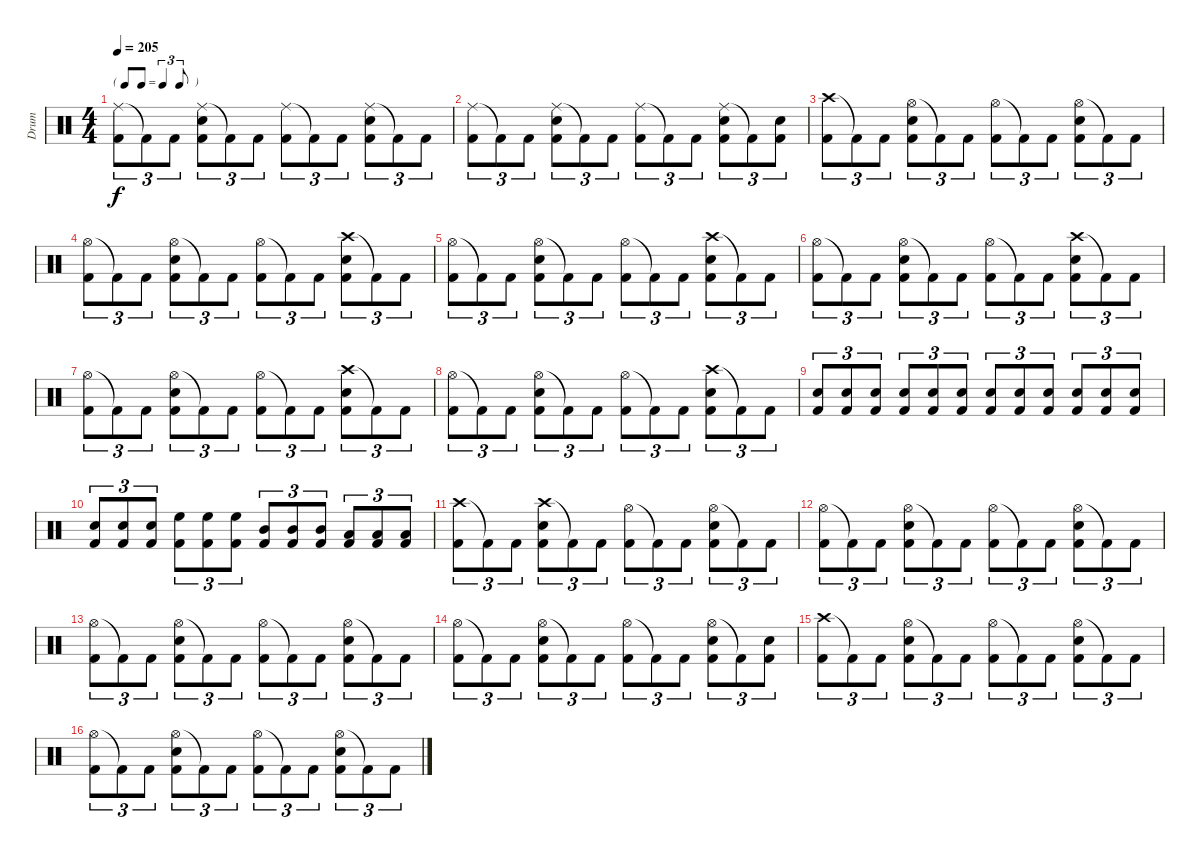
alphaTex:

\track ("Drum" "Drum") {instrument percussion}
\staff {score}
\articulation defaults
\ts (4 4)
\tf triplet8th
\tempo 205
\clef neutral
\ks c
("Ride (middle)" "Kick (hit) 2").8{tu (3 2) dy f} "Kick (hit) 2"{t}.8{tu (3 2)} "Kick (hit) 2".8{tu (3 2)} ("Ride (middle)" "Snare (hit) 2" "Kick (hit) 2").8{tu (3 2)} "Kick (hit) 2"{t}.8{tu (3 2)} "Kick (hit) 2".8{tu (3 2)} ("Ride (middle)" "Kick (hit) 2").8{tu (3 2)} "Kick (hit) 2"{t}.8{tu (3 2)} "Kick (hit) 2".8{tu (3 2)} ("Ride (middle)" "Snare (hit) 2" "Kick (hit) 2").8{tu (3 2)} "Kick (hit) 2"{t}.8{tu (3 2)} "Kick (hit) 2".8{tu (3 2)} |
("Ride (middle)" "Kick (hit) 2").8{tu (3 2)} "Kick (hit) 2"{t}.8{tu (3 2)} "Kick (hit) 2".8{tu (3 2)} ("Ride (middle)" "Snare (hit) 2" "Kick (hit) 2").8{tu (3 2)} "Kick (hit) 2"{t}.8{tu (3 2)} "Kick (hit) 2".8{tu (3 2)} ("Ride (middle)" "Kick (hit) 2").8{tu (3 2)} "Kick (hit) 2"{t}.8{tu (3 2)} "Kick (hit) 2".8{tu (3 2)} ("Ride (middle)" "Snare (hit) 2" "Kick (hit) 2").8{tu (3 2)} "Kick (hit) 2"{t}.8{tu (3 2)} ("Snare (hit) 2" "Kick (hit) 2").8{tu (3 2)} |
("Crash high (hit)" "Kick (hit) 2").8{tu (3 2)} "Kick (hit) 2"{t}.8{tu (3 2)} "Kick (hit) 2".8{tu (3 2)} ("Hi-Hat (open)" "Snare (hit) 2" "Kick (hit) 2").8{tu (3 2)} "Kick (hit) 2"{t}.8{tu (3 2)} "Kick (hit) 2".8{tu (3 2)} ("Hi-Hat (open)" "Kick (hit) 2").8{tu (3 2)} "Kick (hit) 2"{t}.8{tu (3 2)} "Kick (hit) 2".8{tu (3 2)} ("Hi-Hat (open)" "Snare (hit) 2" "Kick (hit) 2").8{tu (3 2)} "Kick (hit) 2"{t}.8{tu (3 2)} "Kick (hit) 2".8{tu (3 2)} |
("Hi-Hat (open)" "Kick (hit) 2").8{tu (3 2)} "Kick (hit) 2"{t}.8{tu (3 2)} "Kick (hit) 2".8{tu (3 2)} ("Hi-Hat (open)" "Snare (hit) 2" "Kick (hit) 2").8{tu (3 2)} "Kick (hit) 2"{t}.8{tu (3 2)} "Kick (hit) 2".8{tu (3 2)} ("Hi-Hat (open)" "Kick (hit) 2").8{tu (3 2)} "Kick (hit) 2"{t}.8{tu (3 2)} "Kick (hit) 2".8{tu (3 2)} ("Crash high (hit)" "Snare (hit) 2" "Kick (hit) 2").8{tu (3 2)} "Kick (hit) 2"{t}.8{tu (3 2)} "Kick (hit) 2".8{tu (3 2)} |
("Hi-Hat (open)" "Kick (hit) 2").8{tu (3 2)} "Kick (hit) 2"{t}.8{tu (3 2)} "Kick (hit) 2".8{tu (3 2)} ("Hi-Hat (open)" "Snare (hit) 2" "Kick (hit) 2").8{tu (3 2)} "Kick (hit) 2"{t}.8{tu (3 2)} "Kick (hit) 2".8{tu (3 2)} ("Hi-Hat (open)" "Kick (hit) 2").8{tu (3 2)} "Kick (hit) 2"{t}.8{tu (3 2)} "Kick (hit) 2".8{tu (3 2)} ("Crash high (hit)" "Snare (hit) 2" "Kick (hit) 2").8{tu (3 2)} "Kick (hit) 2"{t}.8{tu (3 2)} "Kick (hit) 2".8{tu (3 2)} |
("Hi-Hat (open)" "Kick (hit) 2").8{tu (3 2)} "Kick (hit) 2"{t}.8{tu (3 2)} "Kick (hit) 2".8{tu (3 2)} ("Hi-Hat (open)" "Snare (hit) 2" "Kick (hit) 2").8{tu (3 2)} "Kick (hit) 2"{t}.8{tu (3 2)} "Kick (hit) 2".8{tu (3 2)} ("Hi-Hat (open)" "Kick (hit) 2").8{tu (3 2)} "Kick (hit) 2"{t}.8{tu (3 2)} "Kick (hit) 2".8{tu (3 2)} ("Crash high (hit)" "Snare (hit) 2" "Kick (hit) 2").8{tu (3 2)} "Kick (hit) 2"{t}.8{tu (3 2)} "Kick (hit) 2".8{tu (3 2)} |
("Hi-Hat (open)" "Kick (hit) 2").8{tu (3 2)} "Kick (hit) 2"{t}.8{tu (3 2)} "Kick (hit) 2".8{tu (3 2)} ("Hi-Hat (open)" "Snare (hit) 2" "Kick (hit) 2").8{tu (3 2)} "Kick (hit) 2"{t}.8{tu (3 2)} "Kick (hit) 2".8{tu (3 2)} ("Hi-Hat (open)" "Kick (hit) 2").8{tu (3 2)} "Kick (hit) 2"{t}.8{tu (3 2)} "Kick (hit) 2".8{tu (3 2)} ("Crash high (hit)" "Snare (hit) 2" "Kick (hit) 2").8{tu (3 2)} "Kick (hit) 2"{t}.8{tu (3 2)} "Kick (hit) 2".8{tu (3 2)} |
("Hi-Hat (open)" "Kick (hit) 2").8{tu (3 2)} "Kick (hit) 2"{t}.8{tu (3 2)} "Kick (hit) 2".8{tu (3 2)} ("Hi-Hat (open)" "Snare (hit) 2" "Kick (hit) 2").8{tu (3 2)} "Kick (hit) 2"{t}.8{tu (3 2)} "Kick (hit) 2".8{tu (3 2)} ("Hi-Hat (open)" "Kick (hit) 2").8{tu (3 2)} "Kick (hit) 2"{t}.8{tu (3 2)} "Kick (hit) 2".8{tu (3 2)} ("Crash high (hit)" "Snare (hit) 2" "Kick (hit) 2").8{tu (3 2)} "Kick (hit) 2"{t}.8{tu (3 2)} "Kick (hit) 2".8{tu (3 2)} |
("Snare (hit) 2" "Kick (hit) 2").8{tu (3 2)} ("Snare (hit) 2" "Kick (hit) 2").8{tu (3 2)} ("Snare (hit) 2" "Kick (hit) 2").8{tu (3 2)} ("Snare (hit) 2" "Kick (hit) 2").8{tu (3 2)} ("Snare (hit) 2" "Kick (hit) 2").8{tu (3 2)} ("Snare (hit) 2" "Kick (hit) 2").8{tu (3 2)} ("Snare (hit) 2" "Kick (hit) 2").8{tu (3 2)} ("Snare (hit) 2" "Kick (hit) 2").8{tu (3 2)} ("Snare (hit) 2" "Kick (hit) 2").8{tu (3 2)} ("Snare (hit) 2" "Kick (hit) 2").8{tu (3 2)} ("Snare (hit) 2" "Kick (hit) 2").8{tu (3 2)} ("Snare (hit) 2" "Kick (hit) 2").8{tu (3 2)} |
("Snare (hit) 2" "Kick (hit) 2").8{tu (3 2)} ("Snare (hit) 2" "Kick (hit) 2").8{tu (3 2)} ("Snare (hit) 2" "Kick (hit) 2").8{tu (3 2)} ("High Floor Tom (hit)" "Kick (hit) 2").8{tu (3 2)} ("High Floor Tom (hit)" "Kick (hit) 2").8{tu (3 2)} ("High Floor Tom (hit)" "Kick (hit) 2").8{tu (3 2)} ("Mid Tom (hit)" "Kick (hit) 2").8{tu (3 2)} ("Mid Tom (hit)" "Kick (hit) 2").8{tu (3 2)} ("Mid Tom (hit)" "Kick (hit) 2").8{tu (3 2)} ("Low Tom (hit)" "Kick (hit) 2").8{tu (3 2)} ("Low Tom (hit)" "Kick (hit) 2").8{tu (3 2)} ("Low Tom (hit)" "Kick (hit) 2").8{tu (3 2)} |
("Crash high (hit)" "Kick (hit) 2").8{tu (3 2)} "Kick (hit) 2"{t}.8{tu (3 2)} "Kick (hit) 2".8{tu (3 2)} ("Crash high (hit)" "Snare (hit) 2" "Kick (hit) 2").8{tu (3 2)} "Kick (hit) 2"{t}.8{tu (3 2)} "Kick (hit) 2".8{tu (3 2)} ("Hi-Hat (open)" "Kick (hit) 2").8{tu (3 2)} "Kick (hit) 2"{t}.8{tu (3 2)} "Kick (hit) 2".8{tu (3 2)} ("Hi-Hat (open)" "Snare (hit) 2" "Kick (hit) 2").8{tu (3 2)} "Kick (hit) 2"{t}.8{tu (3 2)} "Kick (hit) 2".8{tu (3 2)} |
("Hi-Hat (open)" "Kick (hit) 2").8{tu (3 2)} "Kick (hit) 2"{t}.8{tu (3 2)} "Kick (hit) 2".8{tu (3 2)} ("Hi-Hat (open)" "Snare (hit) 2" "Kick (hit) 2").8{tu (3 2)} "Kick (hit) 2"{t}.8{tu (3 2)} "Kick (hit) 2".8{tu (3 2)} ("Hi-Hat (open)" "Kick (hit) 2").8{tu (3 2)} "Kick (hit) 2"{t}.8{tu (3 2)} "Kick (hit) 2".8{tu (3 2)} ("Hi-Hat (open)" "Snare (hit) 2" "Kick (hit) 2").8{tu (3 2)} "Kick (hit) 2"{t}.8{tu (3 2)} "Kick (hit) 2".8{tu (3 2)} |
("Hi-Hat (open)" "Kick (hit) 2").8{tu (3 2)} "Kick (hit) 2"{t}.8{tu (3 2)} "Kick (hit) 2".8{tu (3 2)} ("Hi-Hat (open)" "Snare (hit) 2" "Kick (hit) 2").8{tu (3 2)} "Kick (hit) 2"{t}.8{tu (3 2)} "Kick (hit) 2".8{tu (3 2)} ("Hi-Hat (open)" "Kick (hit) 2").8{tu (3 2)} "Kick (hit) 2"{t}.8{tu (3 2)} "Kick (hit) 2".8{tu (3 2)} ("Hi-Hat (open)" "Snare (hit) 2" "Kick (hit) 2").8{tu (3 2)} "Kick (hit) 2"{t}.8{tu (3 2)} "Kick (hit) 2".8{tu (3 2)} |
("Hi-Hat (open)" "Kick (hit) 2").8{tu (3 2)} "Kick (hit) 2"{t}.8{tu (3 2)} "Kick (hit) 2".8{tu (3 2)} ("Hi-Hat (open)" "Snare (hit) 2" "Kick (hit) 2").8{tu (3 2)} "Kick (hit) 2"{t}.8{tu (3 2)} "Kick (hit) 2".8{tu (3 2)} ("Hi-Hat (open)" "Kick (hit) 2").8{tu (3 2)} "Kick (hit) 2"{t}.8{tu (3 2)} "Kick (hit) 2".8{tu (3 2)} ("Hi-Hat (open)" "Snare (hit) 2" "Kick (hit) 2").8{tu (3 2)} "Kick (hit) 2"{t}.8{tu (3 2)} ("Snare (hit) 2" "Kick (hit) 2").8{tu (3 2)} |
("Crash high (hit)" "Kick (hit) 2").8{tu (3 2)} "Kick (hit) 2"{t}.8{tu (3 2)} "Kick (hit) 2".8{tu (3 2)} ("Hi-Hat (open)" "Snare (hit) 2" "Kick (hit) 2").8{tu (3 2)} "Kick (hit) 2"{t}.8{tu (3 2)} "Kick (hit) 2".8{tu (3 2)} ("Hi-Hat (open)" "Kick (hit) 2").8{tu (3 2)} "Kick (hit) 2"{t}.8{tu (3 2)} "Kick (hit) 2".8{tu (3 2)} ("Hi-Hat (open)" "Snare (hit) 2" "Kick (hit) 2").8{tu (3 2)} "Kick (hit) 2"{t}.8{tu (3 2)} "Kick (hit) 2".8{tu (3 2)} |
("Hi-Hat (open)" "Kick (hit) 2").8{tu (3 2)} "Kick (hit) 2"{t}.8{tu (3 2)} "Kick (hit) 2".8{tu (3 2)} ("Hi-Hat (open)" "Snare (hit) 2" "Kick (hit) 2").8{tu (3 2)} "Kick (hit) 2"{t}.8{tu (3 2)} "Kick (hit) 2".8{tu (3 2)} ("Hi-Hat (open)" "Kick (hit) 2").8{tu (3 2)} "Kick (hit) 2"{t}.8{tu (3 2)} "Kick (hit) 2".8{tu (3 2)} ("Hi-Hat (open)" "Snare (hit) 2" "Kick (hit) 2").8{tu (3 2)} "Kick (hit) 2"{t}.8{tu (3 2)} "Kick (hit) 2".8{tu (3 2)}
